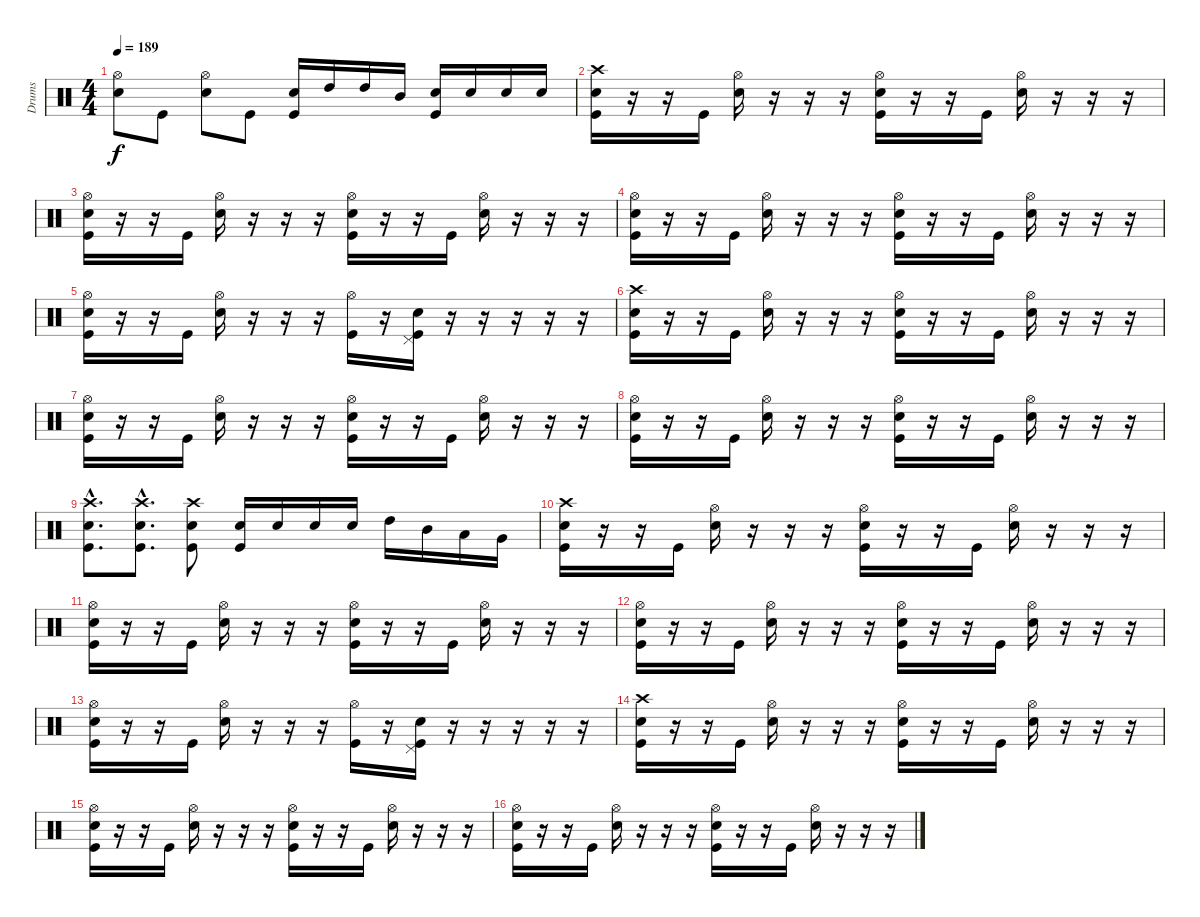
\track ("Drums" "Drums") {instrument percussion}
\staff {score}
\articulation defaults
\ts (4 4)
\tempo 189
\clef neutral
\ks c
("Hi-Hat (open)" "Electric Snare (hit)").8{dy f} "Kick (hit)".8 ("Hi-Hat (open)" "Electric Snare (hit)").8 "Kick (hit)".8 ("Electric Snare (hit)" "Kick (hit)").16 "High Tom (hit)".16 "High Tom (hit)".16 "Mid Tom (hit)".16 ("Electric Snare (hit)" "Kick (hit)").16 "Electric Snare (hit)".16 "Electric Snare (hit)".16 "Electric Snare (hit)".16 |
("Crash high (hit)" "Electric Snare (hit)" "Kick (hit)").16 r.16 r.16 "Kick (hit)".16 ("Hi-Hat (open)" "Electric Snare (hit)").16 r.16 r.16 r.16 ("Hi-Hat (open)" "Electric Snare (hit)" "Kick (hit)").16 r.16 r.16 "Kick (hit)".16 ("Hi-Hat (open)" "Electric Snare (hit)").16 r.16 r.16 r.16 |
("Hi-Hat (open)" "Electric Snare (hit)" "Kick (hit)").16 r.16 r.16 "Kick (hit)".16 ("Hi-Hat (open)" "Electric Snare (hit)").16 r.16 r.16 r.16 ("Hi-Hat (open)" "Electric Snare (hit)" "Kick (hit)").16 r.16 r.16 "Kick (hit)".16 ("Hi-Hat (open)" "Electric Snare (hit)").16 r.16 r.16 r.16 |
("Hi-Hat (open)" "Electric Snare (hit)" "Kick (hit)").16 r.16 r.16 "Kick (hit)".16 ("Hi-Hat (open)" "Electric Snare (hit)").16 r.16 r.16 r.16 ("Hi-Hat (open)" "Electric Snare (hit)" "Kick (hit)").16 r.16 r.16 "Kick (hit)".16 ("Hi-Hat (open)" "Electric Snare (hit)").16 r.16 r.16 r.16 |
("Hi-Hat (open)" "Electric Snare (hit)" "Kick (hit)").16 r.16 r.16 "Kick (hit)".16 ("Hi-Hat (open)" "Electric Snare (hit)").16 r.16 r.16 r.16 ("Hi-Hat (open)" "Kick (hit)").16 r.16 ("Pedal Hi-Hat (hit)" "Electric Snare (hit)" "Kick (hit)").16 r.16 r.16 r.16 r.16 r.16 |
("Crash high (hit)" "Electric Snare (hit)" "Kick (hit)").16 r.16 r.16 "Kick (hit)".16 ("Hi-Hat (open)" "Electric Snare (hit)").16 r.16 r.16 r.16 ("Hi-Hat (open)" "Electric Snare (hit)" "Kick (hit)").16 r.16 r.16 "Kick (hit)".16 ("Hi-Hat (open)" "Electric Snare (hit)").16 r.16 r.16 r.16 |
("Hi-Hat (open)" "Electric Snare (hit)" "Kick (hit)").16 r.16 r.16 "Kick (hit)".16 ("Hi-Hat (open)" "Electric Snare (hit)").16 r.16 r.16 r.16 ("Hi-Hat (open)" "Electric Snare (hit)" "Kick (hit)").16 r.16 r.16 "Kick (hit)".16 ("Hi-Hat (open)" "Electric Snare (hit)").16 r.16 r.16 r.16 |
("Hi-Hat (open)" "Electric Snare (hit)" "Kick (hit)").16 r.16 r.16 "Kick (hit)".16 ("Hi-Hat (open)" "Electric Snare (hit)").16 r.16 r.16 r.16 ("Hi-Hat (open)" "Electric Snare (hit)" "Kick (hit)").16 r.16 r.16 "Kick (hit)".16 ("Hi-Hat (open)" "Electric Snare (hit)").16 r.16 r.16 r.16 |
("Crash high (hit)"{hac} "Electric Snare (hit)"{hac} "Kick (hit)"{hac}).8{d} ("Crash high (hit)"{hac} "Electric Snare (hit)"{hac} "Kick (hit)"{hac}).8{d} ("Crash high (hit)" "Electric Snare (hit)" "Kick (hit)").8 ("Electric Snare (hit)" "Kick (hit)").16 "Electric Snare (hit)".16 "Electric Snare (hit)".16 "Electric Snare (hit)".16 "High Tom (hit)".16 "Mid Tom (hit)".16 "Low Tom (hit)".16 "Very Low Tom (hit)".16 |
("Crash high (hit)" "Electric Snare (hit)" "Kick (hit)").16 r.16 r.16 "Kick (hit)".16 ("Hi-Hat (open)" "Electric Snare (hit)").16 r.16 r.16 r.16 ("Hi-Hat (open)" "Electric Snare (hit)" "Kick (hit)").16 r.16 r.16 "Kick (hit)".16 ("Hi-Hat (open)" "Electric Snare (hit)").16 r.16 r.16 r.16 |
("Hi-Hat (open)" "Electric Snare (hit)" "Kick (hit)").16 r.16 r.16 "Kick (hit)".16 ("Hi-Hat (open)" "Electric Snare (hit)").16 r.16 r.16 r.16 ("Hi-Hat (open)" "Electric Snare (hit)" "Kick (hit)").16 r.16 r.16 "Kick (hit)".16 ("Hi-Hat (open)" "Electric Snare (hit)").16 r.16 r.16 r.16 |
("Hi-Hat (open)" "Electric Snare (hit)" "Kick (hit)").16 r.16 r.16 "Kick (hit)".16 ("Hi-Hat (open)" "Electric Snare (hit)").16 r.16 r.16 r.16 ("Hi-Hat (open)" "Electric Snare (hit)" "Kick (hit)").16 r.16 r.16 "Kick (hit)".16 ("Hi-Hat (open)" "Electric Snare (hit)").16 r.16 r.16 r.16 |
("Hi-Hat (open)" "Electric Snare (hit)" "Kick (hit)").16 r.16 r.16 "Kick (hit)".16 ("Hi-Hat (open)" "Electric Snare (hit)").16 r.16 r.16 r.16 ("Hi-Hat (open)" "Kick (hit)").16 r.16 ("Pedal Hi-Hat (hit)" "Electric Snare (hit)" "Kick (hit)").16 r.16 r.16 r.16 r.16 r.16 |
("Crash high (hit)" "Electric Snare (hit)" "Kick (hit)").16 r.16 r.16 "Kick (hit)".16 ("Hi-Hat (open)" "Electric Snare (hit)").16 r.16 r.16 r.16 ("Hi-Hat (open)" "Electric Snare (hit)" "Kick (hit)").16 r.16 r.16 "Kick (hit)".16 ("Hi-Hat (open)" "Electric Snare (hit)").16 r.16 r.16 r.16 |
("Hi-Hat (open)" "Electric Snare (hit)" "Kick (hit)").16 r.16 r.16 "Kick (hit)".16 ("Hi-Hat (open)" "Electric Snare (hit)").16 r.16 r.16 r.16 ("Hi-Hat (open)" "Electric Snare (hit)" "Kick (hit)").16 r.16 r.16 "Kick (hit)".16 ("Hi-Hat (open)" "Electric Snare (hit)").16 r.16 r.16 r.16 |
("Hi-Hat (open)" "Electric Snare (hit)" "Kick (hit)").16 r.16 r.16 "Kick (hit)".16 ("Hi-Hat (open)" "Electric Snare (hit)").16 r.16 r.16 r.16 ("Hi-Hat (open)" "Electric Snare (hit)" "Kick (hit)").16 r.16 r.16 "Kick (hit)".16 ("Hi-Hat (open)" "Electric Snare (hit)").16 r.16 r.16 r.16
